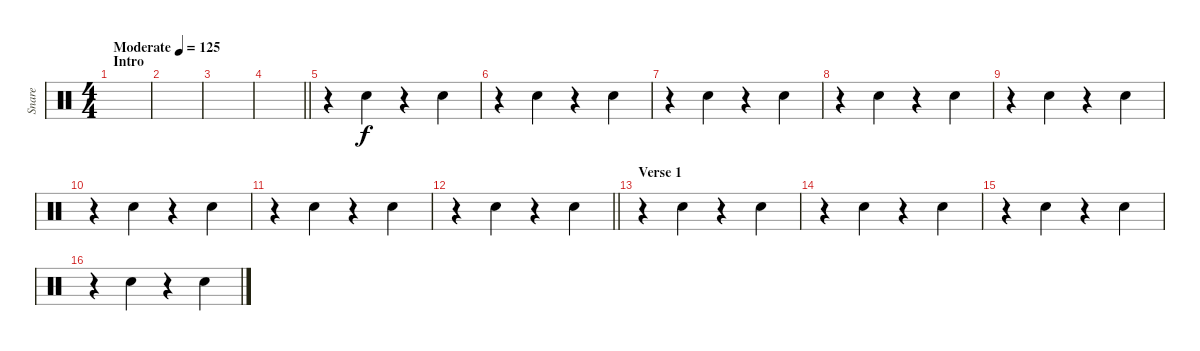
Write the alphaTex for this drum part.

\track ("Snare" "Snare") {instrument percussion}
\staff {score}
\articulation defaults
\ts (4 4)
\section ("" "Intro")
\tempo (125 "Moderate")
\clef neutral
\ks c
|
|
|
\barLineRight lightlight
|
\section ("" "")
r.4 "Electric Snare (hit)".4 r.4 "Electric Snare (hit)".4 |
r.4 "Electric Snare (hit)".4 r.4 "Electric Snare (hit)".4 |
r.4 "Electric Snare (hit)".4 r.4 "Electric Snare (hit)".4 |
r.4 "Electric Snare (hit)".4 r.4 "Electric Snare (hit)".4 |
r.4 "Electric Snare (hit)".4 r.4 "Electric Snare (hit)".4 |
r.4 "Electric Snare (hit)".4 r.4 "Electric Snare (hit)".4 |
r.4 "Electric Snare (hit)".4 r.4 "Electric Snare (hit)".4 |
\barLineRight lightlight
r.4 "Electric Snare (hit)".4 r.4 "Electric Snare (hit)".4 |
\section ("" "Verse 1")
r.4 "Electric Snare (hit)".4 r.4 "Electric Snare (hit)".4 |
r.4 "Electric Snare (hit)".4 r.4 "Electric Snare (hit)".4 |
r.4 "Electric Snare (hit)".4 r.4 "Electric Snare (hit)".4 |
r.4 "Electric Snare (hit)".4 r.4 "Electric Snare (hit)".4
